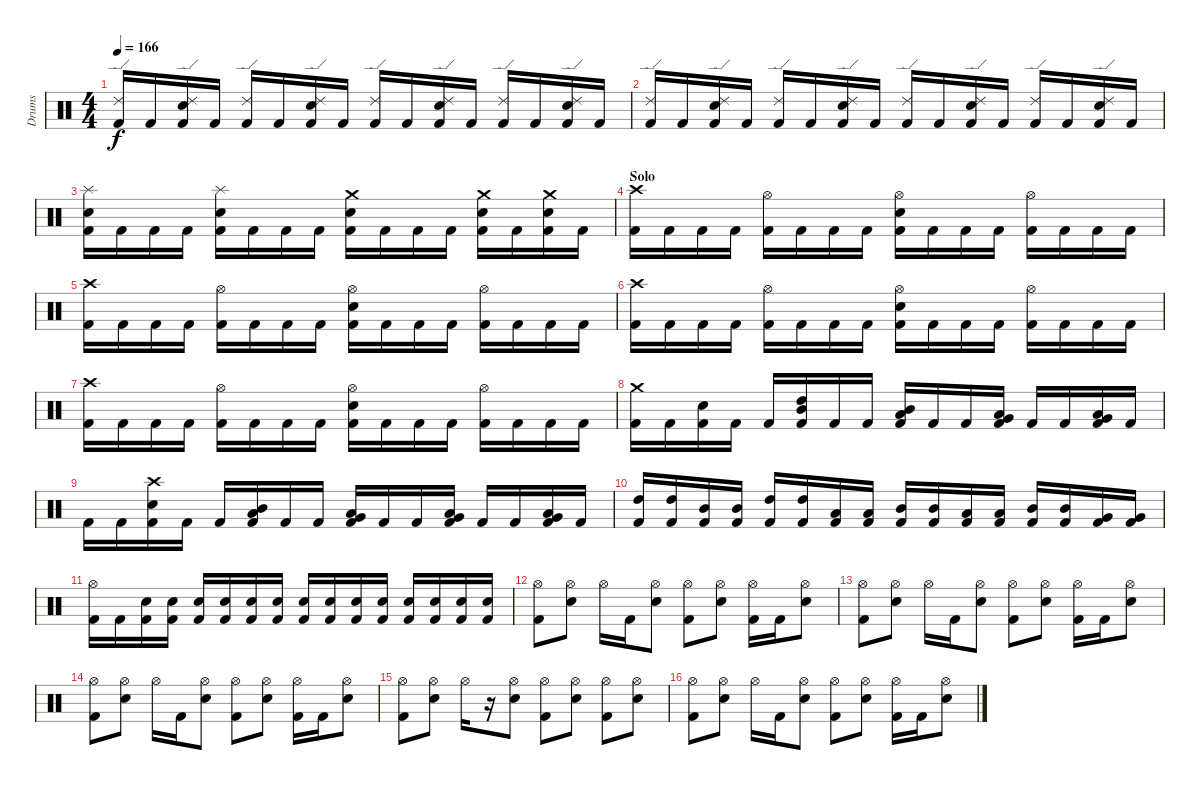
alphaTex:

\track ("Drums" "Drums") {instrument percussion}
\staff {score}
\articulation defaults
\ts (4 4)
\tempo 166
\clef neutral
\ks c
("Kick (hit) 2" "Ride (edge) 2").16{dy f} "Kick (hit) 2".16 ("Kick (hit) 2" "Electric Snare (hit)" "Ride (edge) 2").16 "Kick (hit) 2".16 ("Kick (hit) 2" "Ride (edge) 2").16 "Kick (hit) 2".16 ("Kick (hit) 2" "Electric Snare (hit)" "Ride (edge) 2").16 "Kick (hit) 2".16 ("Kick (hit) 2" "Ride (edge) 2").16 "Kick (hit) 2".16 ("Kick (hit) 2" "Electric Snare (hit)" "Ride (edge) 2").16 "Kick (hit) 2".16 ("Kick (hit) 2" "Ride (edge) 2").16 "Kick (hit) 2".16 ("Kick (hit) 2" "Electric Snare (hit)" "Ride (edge) 2").16 "Kick (hit) 2".16 |
("Kick (hit) 2" "Ride (edge) 2").16 "Kick (hit) 2".16 ("Kick (hit) 2" "Electric Snare (hit)" "Ride (edge) 2").16 "Kick (hit) 2".16 ("Kick (hit) 2" "Ride (edge) 2").16 "Kick (hit) 2".16 ("Kick (hit) 2" "Electric Snare (hit)" "Ride (edge) 2").16 "Kick (hit) 2".16 ("Kick (hit) 2" "Ride (edge) 2").16 "Kick (hit) 2".16 ("Kick (hit) 2" "Electric Snare (hit)" "Ride (edge) 2").16 "Kick (hit) 2".16 ("Kick (hit) 2" "Ride (edge) 2").16 "Kick (hit) 2".16 ("Kick (hit) 2" "Electric Snare (hit)" "Ride (edge) 2").16 "Kick (hit) 2".16 |
("Kick (hit) 2" "Electric Snare (hit)" "Splash (hit)").16 "Kick (hit) 2".16 "Kick (hit) 2".16 "Kick (hit) 2".16 ("Kick (hit) 2" "Electric Snare (hit)" "Splash (hit)").16 "Kick (hit) 2".16 "Kick (hit) 2".16 "Kick (hit) 2".16 ("Kick (hit) 2" "Electric Snare (hit)" "Crash medium (hit)").16 "Kick (hit) 2".16 "Kick (hit) 2".16 "Kick (hit) 2".16 ("Kick (hit) 2" "Electric Snare (hit)" "Crash medium (hit)").16 "Kick (hit) 2".16 ("Kick (hit) 2" "Electric Snare (hit)" "Crash medium (hit)").16 "Kick (hit) 2".16 |
\section ("" "Solo")
("Kick (hit) 2" "Crash high (hit)").16 "Kick (hit) 2".16 "Kick (hit) 2".16 "Kick (hit) 2".16 ("Kick (hit) 2" "Hi-Hat (open)").16 "Kick (hit) 2".16 "Kick (hit) 2".16 "Kick (hit) 2".16 ("Kick (hit) 2" "Electric Snare (hit)" "Hi-Hat (open)").16 "Kick (hit) 2".16 "Kick (hit) 2".16 "Kick (hit) 2".16 ("Kick (hit) 2" "Hi-Hat (open)").16 "Kick (hit) 2".16 "Kick (hit) 2".16 "Kick (hit) 2".16 |
("Kick (hit) 2" "Crash high (hit)").16 "Kick (hit) 2".16 "Kick (hit) 2".16 "Kick (hit) 2".16 ("Kick (hit) 2" "Hi-Hat (open)").16 "Kick (hit) 2".16 "Kick (hit) 2".16 "Kick (hit) 2".16 ("Kick (hit) 2" "Electric Snare (hit)" "Hi-Hat (open)").16 "Kick (hit) 2".16 "Kick (hit) 2".16 "Kick (hit) 2".16 ("Kick (hit) 2" "Hi-Hat (open)").16 "Kick (hit) 2".16 "Kick (hit) 2".16 "Kick (hit) 2".16 |
("Kick (hit) 2" "Crash high (hit)").16 "Kick (hit) 2".16 "Kick (hit) 2".16 "Kick (hit) 2".16 ("Kick (hit) 2" "Hi-Hat (open)").16 "Kick (hit) 2".16 "Kick (hit) 2".16 "Kick (hit) 2".16 ("Kick (hit) 2" "Electric Snare (hit)" "Hi-Hat (open)").16 "Kick (hit) 2".16 "Kick (hit) 2".16 "Kick (hit) 2".16 ("Kick (hit) 2" "Hi-Hat (open)").16 "Kick (hit) 2".16 "Kick (hit) 2".16 "Kick (hit) 2".16 |
("Kick (hit) 2" "Crash high (hit)").16 "Kick (hit) 2".16 "Kick (hit) 2".16 "Kick (hit) 2".16 ("Kick (hit) 2" "Hi-Hat (open)").16 "Kick (hit) 2".16 "Kick (hit) 2".16 "Kick (hit) 2".16 ("Kick (hit) 2" "Electric Snare (hit)" "Hi-Hat (open)").16 "Kick (hit) 2".16 "Kick (hit) 2".16 "Kick (hit) 2".16 ("Kick (hit) 2" "Hi-Hat (open)").16 "Kick (hit) 2".16 "Kick (hit) 2".16 "Kick (hit) 2".16 |
("Kick (hit) 2" "Crash medium (hit)").16 "Kick (hit) 2".16 ("Kick (hit) 2" "Electric Snare (hit)").16 "Kick (hit) 2".16 "Kick (hit) 2".16 ("Kick (hit) 2" "High Tom (hit)" "Mid Tom (hit)").16 "Kick (hit) 2".16 "Kick (hit) 2".16 ("Kick (hit) 2" "Mid Tom (hit)" "Low Tom (hit)").16 "Kick (hit) 2".16 "Kick (hit) 2".16 ("Kick (hit) 2" "Low Tom (hit)" "Very Low Tom (hit)").16 "Kick (hit) 2".16 "Kick (hit) 2".16 ("Kick (hit) 2" "Very Low Tom (hit)" "Low Floor Tom (hit)").16 "Kick (hit) 2".16 |
"Kick (hit) 2".16 "Kick (hit) 2".16 ("Kick (hit) 2" "Electric Snare (hit)" "Crash high (hit)").16 "Kick (hit) 2".16 "Kick (hit) 2".16 ("Kick (hit) 2" "Mid Tom (hit)" "Low Tom (hit)").16 "Kick (hit) 2".16 "Kick (hit) 2".16 ("Kick (hit) 2" "Low Tom (hit)" "Very Low Tom (hit)").16 "Kick (hit) 2".16 "Kick (hit) 2".16 ("Kick (hit) 2" "Very Low Tom (hit)" "Low Floor Tom (hit)").16 "Kick (hit) 2".16 "Kick (hit) 2".16 ("Kick (hit) 2" "Low Floor Tom (hit)" "Very Low Tom (hit)").16 "Kick (hit) 2".16 |
("Kick (hit) 2" "High Tom (hit)").16 ("Kick (hit) 2" "High Tom (hit)").16 ("Kick (hit) 2" "Mid Tom (hit)").16 ("Kick (hit) 2" "Mid Tom (hit)").16 ("Kick (hit) 2" "High Tom (hit)").16 ("Kick (hit) 2" "High Tom (hit)").16 ("Kick (hit) 2" "Low Tom (hit)").16 ("Kick (hit) 2" "Low Tom (hit)").16 ("Kick (hit) 2" "Mid Tom (hit)").16 ("Kick (hit) 2" "Mid Tom (hit)").16 ("Kick (hit) 2" "Low Tom (hit)").16 ("Kick (hit) 2" "Low Tom (hit)").16 ("Kick (hit) 2" "Mid Tom (hit)").16 ("Kick (hit) 2" "Mid Tom (hit)").16 ("Kick (hit) 2" "Very Low Tom (hit)").16 ("Kick (hit) 2" "Very Low Tom (hit)").16 |
("Kick (hit) 2" "Hi-Hat (open)").16 "Kick (hit) 2".16 ("Kick (hit) 2" "Electric Snare (hit)").16 ("Kick (hit) 2" "Electric Snare (hit)").16 ("Kick (hit) 2" "Electric Snare (hit)").16 ("Kick (hit) 2" "Electric Snare (hit)").16 ("Kick (hit) 2" "Electric Snare (hit)").16 ("Kick (hit) 2" "Electric Snare (hit)").16 ("Kick (hit) 2" "Electric Snare (hit)").16 ("Kick (hit) 2" "Electric Snare (hit)").16 ("Kick (hit) 2" "Electric Snare (hit)").16 ("Kick (hit) 2" "Electric Snare (hit)").16 ("Kick (hit) 2" "Electric Snare (hit)").16 ("Kick (hit) 2" "Electric Snare (hit)").16 ("Kick (hit) 2" "Electric Snare (hit)").16 ("Kick (hit) 2" "Electric Snare (hit)").16 |
\section ("" "")
("Kick (hit) 2" "Hi-Hat (open)").8 ("Electric Snare (hit)" "Hi-Hat (open)").8 "Hi-Hat (open)".16 "Kick (hit) 2".16 ("Electric Snare (hit)" "Hi-Hat (open)").8 ("Kick (hit) 2" "Hi-Hat (open)").8 ("Electric Snare (hit)" "Hi-Hat (open)").8 ("Kick (hit) 2" "Hi-Hat (open)").16 "Kick (hit) 2".16 ("Electric Snare (hit)" "Hi-Hat (open)").8 |
("Kick (hit) 2" "Hi-Hat (open)").8 ("Electric Snare (hit)" "Hi-Hat (open)").8 "Hi-Hat (open)".16 "Kick (hit) 2".16 ("Electric Snare (hit)" "Hi-Hat (open)").8 ("Kick (hit) 2" "Hi-Hat (open)").8 ("Electric Snare (hit)" "Hi-Hat (open)").8 ("Kick (hit) 2" "Hi-Hat (open)").16 "Kick (hit) 2".16 ("Electric Snare (hit)" "Hi-Hat (open)").8 |
("Kick (hit) 2" "Hi-Hat (open)").8 ("Electric Snare (hit)" "Hi-Hat (open)").8 "Hi-Hat (open)".16 "Kick (hit) 2".16 ("Electric Snare (hit)" "Hi-Hat (open)").8 ("Kick (hit) 2" "Hi-Hat (open)").8 ("Electric Snare (hit)" "Hi-Hat (open)").8 ("Kick (hit) 2" "Hi-Hat (open)").16 "Kick (hit) 2".16 ("Electric Snare (hit)" "Hi-Hat (open)").8 |
("Kick (hit) 2" "Hi-Hat (open)").8 ("Electric Snare (hit)" "Hi-Hat (open)").8 "Hi-Hat (open)".16 r.16 ("Electric Snare (hit)" "Hi-Hat (open)").8 ("Kick (hit) 2" "Hi-Hat (open)").8 ("Electric Snare (hit)" "Hi-Hat (open)").8 ("Kick (hit) 2" "Hi-Hat (open)").8 ("Electric Snare (hit)" "Hi-Hat (open)").8 |
("Kick (hit) 2" "Hi-Hat (open)").8 ("Electric Snare (hit)" "Hi-Hat (open)").8 "Hi-Hat (open)".16 "Kick (hit) 2".16 ("Electric Snare (hit)" "Hi-Hat (open)").8 ("Kick (hit) 2" "Hi-Hat (open)").8 ("Electric Snare (hit)" "Hi-Hat (open)").8 ("Kick (hit) 2" "Hi-Hat (open)").16 "Kick (hit) 2".16 ("Electric Snare (hit)" "Hi-Hat (open)").8
